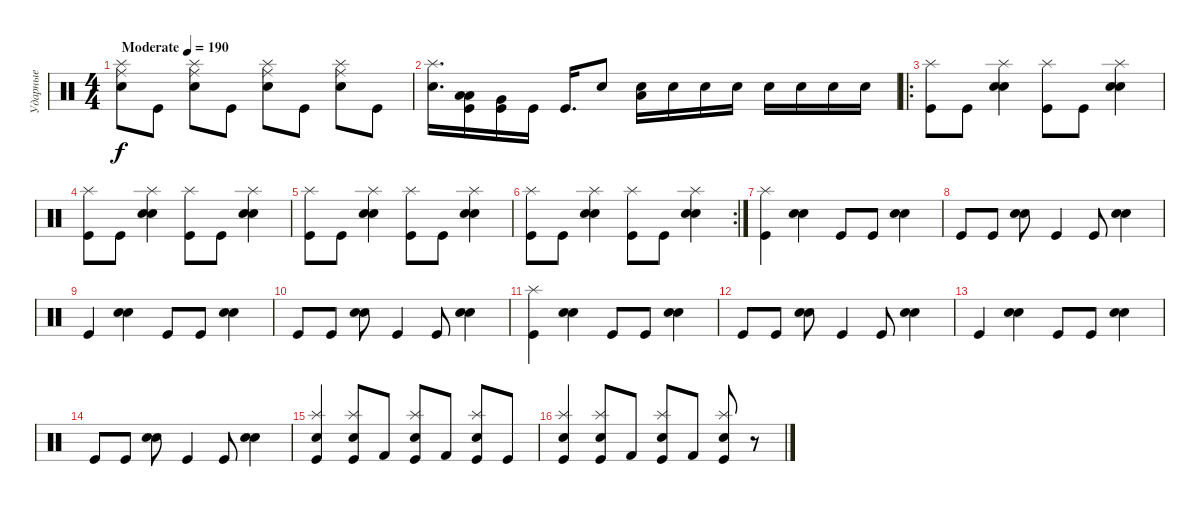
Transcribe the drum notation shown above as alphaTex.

\track ("Ударные" "Ударные") {instrument percussion}
\staff {score}
\articulation defaults
\ts (4 4)
\tempo (190 "Moderate")
\clef neutral
\ks c
("Electric Snare (hit)" "Splash (hit)" "Ride (middle)").8{dy f} "Kick (hit)".8 ("Electric Snare (hit)" "Splash (hit)" "Ride (middle)").8 "Kick (hit)".8 ("Electric Snare (hit)" "Splash (hit)" "Ride (middle)").8 "Kick (hit)".8 ("Electric Snare (hit)" "Splash (hit)" "Ride (middle)").8 "Kick (hit)".8 |
("Electric Snare (hit)" "Splash (hit)").16{d} ("Low Tom (hit)" "Low Floor Tom (hit)" "Kick (hit)").16 ("Very Low Tom (hit)" "Kick (hit)").16 "Kick (hit)".16 "Kick (hit)".16{d} "Electric Snare (hit)".8 ("Low Floor Tom (hit)" "Electric Snare (hit)").16 "Electric Snare (hit)".16 "Electric Snare (hit)".16 "Electric Snare (hit)".16 "Electric Snare (hit)".16 "Electric Snare (hit)".16 "Electric Snare (hit)".16 "Electric Snare (hit)".16 |
\ro
("Splash (hit)" "Kick (hit)").8 "Kick (hit)".8 ("Splash (hit)" "Snare (hit) 2" "Electric Snare (hit)").4 ("Splash (hit)" "Kick (hit)").8 "Kick (hit)".8 ("Splash (hit)" "Snare (hit) 2" "Electric Snare (hit)").4 |
("Splash (hit)" "Kick (hit)").8 "Kick (hit)".8 ("Splash (hit)" "Snare (hit) 2" "Electric Snare (hit)").4 ("Splash (hit)" "Kick (hit)").8 "Kick (hit)".8 ("Splash (hit)" "Snare (hit) 2" "Electric Snare (hit)").4 |
("Splash (hit)" "Kick (hit)").8 "Kick (hit)".8 ("Splash (hit)" "Snare (hit) 2" "Electric Snare (hit)").4 ("Splash (hit)" "Kick (hit)").8 "Kick (hit)".8 ("Splash (hit)" "Snare (hit) 2" "Electric Snare (hit)").4 |
\rc 2
("Splash (hit)" "Kick (hit)").8 "Kick (hit)".8 ("Splash (hit)" "Snare (hit) 2" "Electric Snare (hit)").4 ("Splash (hit)" "Kick (hit)").8 "Kick (hit)".8 ("Splash (hit)" "Snare (hit) 2" "Electric Snare (hit)").4 |
("Splash (hit)" "Kick (hit)").4 ("Snare (hit) 2" "Electric Snare (hit)").4 "Kick (hit)".8 "Kick (hit)".8 ("Snare (hit) 2" "Electric Snare (hit)").4 |
"Kick (hit)".8 "Kick (hit)".8 ("Snare (hit) 2" "Electric Snare (hit)").8 "Kick (hit)".4 "Kick (hit)".8 ("Snare (hit) 2" "Electric Snare (hit)").4 |
"Kick (hit)".4 ("Snare (hit) 2" "Electric Snare (hit)").4 "Kick (hit)".8 "Kick (hit)".8 ("Snare (hit) 2" "Electric Snare (hit)").4 |
"Kick (hit)".8 "Kick (hit)".8 ("Snare (hit) 2" "Electric Snare (hit)").8 "Kick (hit)".4 "Kick (hit)".8 ("Snare (hit) 2" "Electric Snare (hit)").4 |
("Splash (hit)" "Kick (hit)").4 ("Snare (hit) 2" "Electric Snare (hit)").4 "Kick (hit)".8 "Kick (hit)".8 ("Snare (hit) 2" "Electric Snare (hit)").4 |
"Kick (hit)".8 "Kick (hit)".8 ("Snare (hit) 2" "Electric Snare (hit)").8 "Kick (hit)".4 "Kick (hit)".8 ("Snare (hit) 2" "Electric Snare (hit)").4 |
"Kick (hit)".4 ("Snare (hit) 2" "Electric Snare (hit)").4 "Kick (hit)".8 "Kick (hit)".8 ("Snare (hit) 2" "Electric Snare (hit)").4 |
"Kick (hit)".8 "Kick (hit)".8 ("Snare (hit) 2" "Electric Snare (hit)").8 "Kick (hit)".4 "Kick (hit)".8 ("Snare (hit) 2" "Electric Snare (hit)").4 |
("Splash (hit)" "Electric Snare (hit)" "Kick (hit)").4 ("Splash (hit)" "Electric Snare (hit)" "Kick (hit)").8 "Kick (hit) 2".8 ("Splash (hit)" "Electric Snare (hit)" "Kick (hit)").8 "Kick (hit) 2".8 ("Splash (hit)" "Electric Snare (hit)" "Kick (hit)").8 "Kick (hit)".8 |
("Splash (hit)" "Electric Snare (hit)" "Kick (hit)").4 ("Splash (hit)" "Electric Snare (hit)" "Kick (hit)").8 "Kick (hit) 2".8 ("Splash (hit)" "Electric Snare (hit)" "Kick (hit)").8 "Kick (hit) 2".8 ("Splash (hit)" "Electric Snare (hit)" "Kick (hit)").8 r.8
